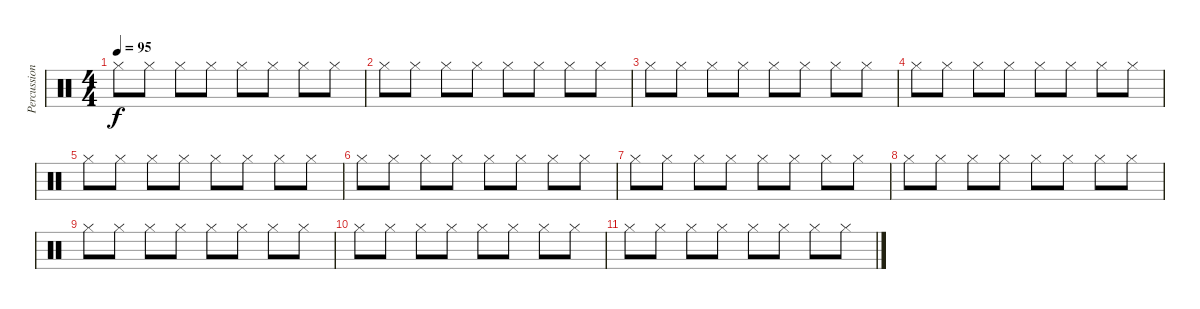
\track ("Percussions" "Percussion") {instrument percussion}
\staff {score}
\articulation defaults
\ts (4 4)
\tempo 95
\clef neutral
\ks c "Hi-Hat (closed)".8{dy f} "Hi-Hat (closed)".8 "Hi-Hat (closed)".8 "Hi-Hat (closed)".8 "Hi-Hat (closed)".8 "Hi-Hat (closed)".8 "Hi-Hat (closed)".8 "Hi-Hat (closed)".8
|
"Hi-Hat (closed)".8 "Hi-Hat (closed)".8 "Hi-Hat (closed)".8 "Hi-Hat (closed)".8 "Hi-Hat (closed)".8 "Hi-Hat (closed)".8 "Hi-Hat (closed)".8 "Hi-Hat (closed)".8 |
"Hi-Hat (closed)".8 "Hi-Hat (closed)".8 "Hi-Hat (closed)".8 "Hi-Hat (closed)".8 "Hi-Hat (closed)".8 "Hi-Hat (closed)".8 "Hi-Hat (closed)".8 "Hi-Hat (closed)".8 |
"Hi-Hat (closed)".8 "Hi-Hat (closed)".8 "Hi-Hat (closed)".8 "Hi-Hat (closed)".8 "Hi-Hat (closed)".8 "Hi-Hat (closed)".8 "Hi-Hat (closed)".8 "Hi-Hat (closed)".8 |
"Hi-Hat (closed)".8 "Hi-Hat (closed)".8 "Hi-Hat (closed)".8 "Hi-Hat (closed)".8 "Hi-Hat (closed)".8 "Hi-Hat (closed)".8 "Hi-Hat (closed)".8 "Hi-Hat (closed)".8 |
"Hi-Hat (closed)".8 "Hi-Hat (closed)".8 "Hi-Hat (closed)".8 "Hi-Hat (closed)".8 "Hi-Hat (closed)".8 "Hi-Hat (closed)".8 "Hi-Hat (closed)".8 "Hi-Hat (closed)".8 |
"Hi-Hat (closed)".8 "Hi-Hat (closed)".8 "Hi-Hat (closed)".8 "Hi-Hat (closed)".8 "Hi-Hat (closed)".8 "Hi-Hat (closed)".8 "Hi-Hat (closed)".8 "Hi-Hat (closed)".8 |
"Hi-Hat (closed)".8 "Hi-Hat (closed)".8 "Hi-Hat (closed)".8 "Hi-Hat (closed)".8 "Hi-Hat (closed)".8 "Hi-Hat (closed)".8 "Hi-Hat (closed)".8 "Hi-Hat (closed)".8 |
"Hi-Hat (closed)".8 "Hi-Hat (closed)".8 "Hi-Hat (closed)".8 "Hi-Hat (closed)".8 "Hi-Hat (closed)".8 "Hi-Hat (closed)".8 "Hi-Hat (closed)".8 "Hi-Hat (closed)".8 |
"Hi-Hat (closed)".8 "Hi-Hat (closed)".8 "Hi-Hat (closed)".8 "Hi-Hat (closed)".8 "Hi-Hat (closed)".8 "Hi-Hat (closed)".8 "Hi-Hat (closed)".8 "Hi-Hat (closed)".8 |
"Hi-Hat (closed)".8 "Hi-Hat (closed)".8 "Hi-Hat (closed)".8 "Hi-Hat (closed)".8 "Hi-Hat (closed)".8 "Hi-Hat (closed)".8 "Hi-Hat (closed)".8 "Hi-Hat (closed)".8
